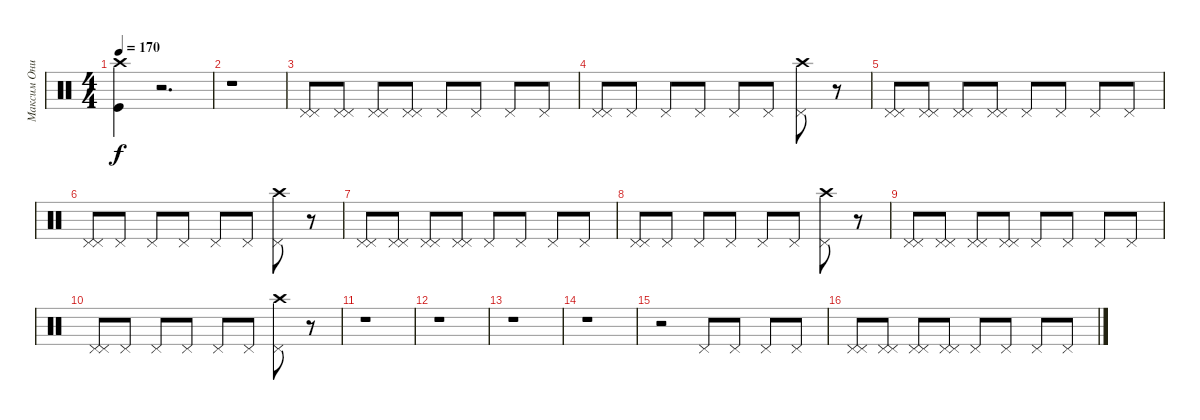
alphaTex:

\track ("Максим Онищенко" "Максим Они") {instrument percussion}
\staff {score}
\articulation defaults
\ts (4 4)
\tempo 170
\clef neutral
\ks c
("Crash high (hit)" "Kick (hit)").4{dy f} r.2{d} |
r.1 |
("Pedal Hi-Hat (hit)" "Pedal Hi-Hat (hit)").8 ("Pedal Hi-Hat (hit)" "Pedal Hi-Hat (hit)").8 ("Pedal Hi-Hat (hit)" "Pedal Hi-Hat (hit)").8 ("Pedal Hi-Hat (hit)" "Pedal Hi-Hat (hit)").8 "Pedal Hi-Hat (hit)".8 "Pedal Hi-Hat (hit)".8 "Pedal Hi-Hat (hit)".8 "Pedal Hi-Hat (hit)".8 |
("Pedal Hi-Hat (hit)" "Pedal Hi-Hat (hit)").8 "Pedal Hi-Hat (hit)".8 "Pedal Hi-Hat (hit)".8 "Pedal Hi-Hat (hit)".8 "Pedal Hi-Hat (hit)".8 "Pedal Hi-Hat (hit)".8 ("Pedal Hi-Hat (hit)" "Crash high (hit)").8 r.8 |
("Pedal Hi-Hat (hit)" "Pedal Hi-Hat (hit)").8 ("Pedal Hi-Hat (hit)" "Pedal Hi-Hat (hit)").8 ("Pedal Hi-Hat (hit)" "Pedal Hi-Hat (hit)").8 ("Pedal Hi-Hat (hit)" "Pedal Hi-Hat (hit)").8 "Pedal Hi-Hat (hit)".8 "Pedal Hi-Hat (hit)".8 "Pedal Hi-Hat (hit)".8 "Pedal Hi-Hat (hit)".8 |
("Pedal Hi-Hat (hit)" "Pedal Hi-Hat (hit)").8 "Pedal Hi-Hat (hit)".8 "Pedal Hi-Hat (hit)".8 "Pedal Hi-Hat (hit)".8 "Pedal Hi-Hat (hit)".8 "Pedal Hi-Hat (hit)".8 ("Pedal Hi-Hat (hit)" "Crash high (hit)").8 r.8 |
("Pedal Hi-Hat (hit)" "Pedal Hi-Hat (hit)").8 ("Pedal Hi-Hat (hit)" "Pedal Hi-Hat (hit)").8 ("Pedal Hi-Hat (hit)" "Pedal Hi-Hat (hit)").8 ("Pedal Hi-Hat (hit)" "Pedal Hi-Hat (hit)").8 "Pedal Hi-Hat (hit)".8 "Pedal Hi-Hat (hit)".8 "Pedal Hi-Hat (hit)".8 "Pedal Hi-Hat (hit)".8 |
("Pedal Hi-Hat (hit)" "Pedal Hi-Hat (hit)").8 "Pedal Hi-Hat (hit)".8 "Pedal Hi-Hat (hit)".8 "Pedal Hi-Hat (hit)".8 "Pedal Hi-Hat (hit)".8 "Pedal Hi-Hat (hit)".8 ("Pedal Hi-Hat (hit)" "Crash high (hit)").8 r.8 |
("Pedal Hi-Hat (hit)" "Pedal Hi-Hat (hit)").8 ("Pedal Hi-Hat (hit)" "Pedal Hi-Hat (hit)").8 ("Pedal Hi-Hat (hit)" "Pedal Hi-Hat (hit)").8 ("Pedal Hi-Hat (hit)" "Pedal Hi-Hat (hit)").8 "Pedal Hi-Hat (hit)".8 "Pedal Hi-Hat (hit)".8 "Pedal Hi-Hat (hit)".8 "Pedal Hi-Hat (hit)".8 |
("Pedal Hi-Hat (hit)" "Pedal Hi-Hat (hit)").8 "Pedal Hi-Hat (hit)".8 "Pedal Hi-Hat (hit)".8 "Pedal Hi-Hat (hit)".8 "Pedal Hi-Hat (hit)".8 "Pedal Hi-Hat (hit)".8 ("Pedal Hi-Hat (hit)" "Crash high (hit)").8 r.8 |
r.1 |
r.1 |
r.1 |
r.1 |
r.2 "Pedal Hi-Hat (hit)".8 "Pedal Hi-Hat (hit)".8 "Pedal Hi-Hat (hit)".8 "Pedal Hi-Hat (hit)".8 |
("Pedal Hi-Hat (hit)" "Pedal Hi-Hat (hit)").8 ("Pedal Hi-Hat (hit)" "Pedal Hi-Hat (hit)").8 ("Pedal Hi-Hat (hit)" "Pedal Hi-Hat (hit)").8 ("Pedal Hi-Hat (hit)" "Pedal Hi-Hat (hit)").8 "Pedal Hi-Hat (hit)".8 "Pedal Hi-Hat (hit)".8 "Pedal Hi-Hat (hit)".8 "Pedal Hi-Hat (hit)".8
